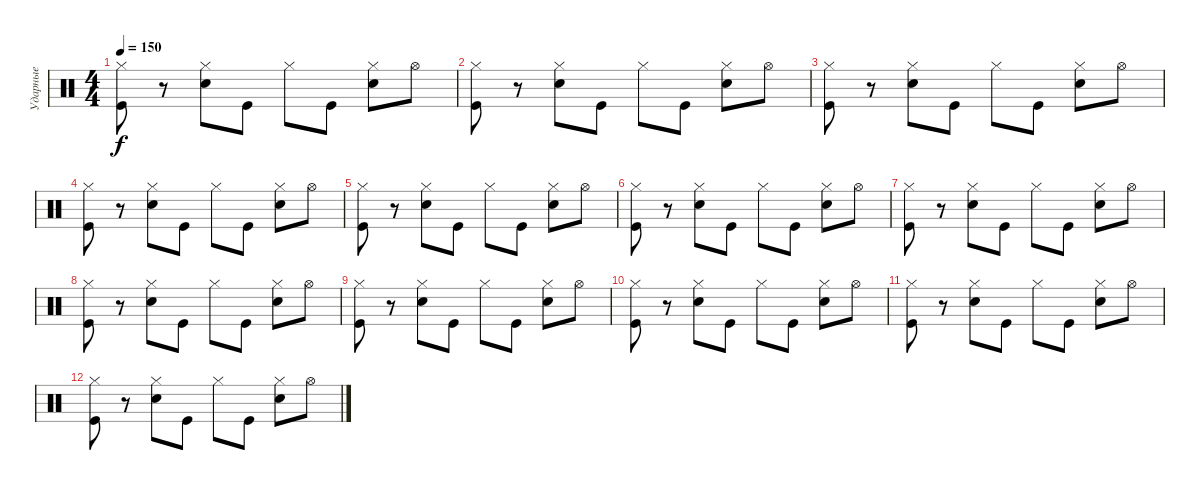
\track ("Ударные" "Ударные") {instrument percussion}
\staff {score}
\articulation defaults
\ts (4 4)
\tempo 150
\clef neutral
\ks c
("Kick (hit)" "Hi-Hat (closed)").8{dy f} r.8 ("Hand Clap (hit)" "Hi-Hat (closed)").8 "Kick (hit)".8 "Hi-Hat (closed)".8 "Kick (hit)".8 ("Hand Clap (hit)" "Hi-Hat (closed)").8 "Hi-Hat (open)".8 |
("Kick (hit)" "Hi-Hat (closed)").8 r.8 ("Hand Clap (hit)" "Hi-Hat (closed)").8 "Kick (hit)".8 "Hi-Hat (closed)".8 "Kick (hit)".8 ("Hand Clap (hit)" "Hi-Hat (closed)").8 "Hi-Hat (open)".8 |
("Kick (hit)" "Hi-Hat (closed)").8 r.8 ("Hand Clap (hit)" "Hi-Hat (closed)").8 "Kick (hit)".8 "Hi-Hat (closed)".8 "Kick (hit)".8 ("Hand Clap (hit)" "Hi-Hat (closed)").8 "Hi-Hat (open)".8 |
("Kick (hit)" "Hi-Hat (closed)").8 r.8 ("Hand Clap (hit)" "Hi-Hat (closed)").8 "Kick (hit)".8 "Hi-Hat (closed)".8 "Kick (hit)".8 ("Hand Clap (hit)" "Hi-Hat (closed)").8 "Hi-Hat (open)".8 |
("Kick (hit)" "Hi-Hat (closed)").8 r.8 ("Hand Clap (hit)" "Hi-Hat (closed)").8 "Kick (hit)".8 "Hi-Hat (closed)".8 "Kick (hit)".8 ("Hand Clap (hit)" "Hi-Hat (closed)").8 "Hi-Hat (open)".8 |
("Kick (hit)" "Hi-Hat (closed)").8 r.8 ("Hand Clap (hit)" "Hi-Hat (closed)").8 "Kick (hit)".8 "Hi-Hat (closed)".8 "Kick (hit)".8 ("Hand Clap (hit)" "Hi-Hat (closed)").8 "Hi-Hat (open)".8 |
("Kick (hit)" "Hi-Hat (closed)").8 r.8 ("Hand Clap (hit)" "Hi-Hat (closed)").8 "Kick (hit)".8 "Hi-Hat (closed)".8 "Kick (hit)".8 ("Hand Clap (hit)" "Hi-Hat (closed)").8 "Hi-Hat (open)".8 |
("Kick (hit)" "Hi-Hat (closed)").8 r.8 ("Hand Clap (hit)" "Hi-Hat (closed)").8 "Kick (hit)".8 "Hi-Hat (closed)".8 "Kick (hit)".8 ("Hand Clap (hit)" "Hi-Hat (closed)").8 "Hi-Hat (open)".8 |
("Kick (hit)" "Hi-Hat (closed)").8 r.8 ("Hand Clap (hit)" "Hi-Hat (closed)").8 "Kick (hit)".8 "Hi-Hat (closed)".8 "Kick (hit)".8 ("Hand Clap (hit)" "Hi-Hat (closed)").8 "Hi-Hat (open)".8 |
("Kick (hit)" "Hi-Hat (closed)").8 r.8 ("Hand Clap (hit)" "Hi-Hat (closed)").8 "Kick (hit)".8 "Hi-Hat (closed)".8 "Kick (hit)".8 ("Hand Clap (hit)" "Hi-Hat (closed)").8 "Hi-Hat (open)".8 |
("Kick (hit)" "Hi-Hat (closed)").8 r.8 ("Hand Clap (hit)" "Hi-Hat (closed)").8 "Kick (hit)".8 "Hi-Hat (closed)".8 "Kick (hit)".8 ("Hand Clap (hit)" "Hi-Hat (closed)").8 "Hi-Hat (open)".8 |
("Kick (hit)" "Hi-Hat (closed)").8 r.8 ("Hand Clap (hit)" "Hi-Hat (closed)").8 "Kick (hit)".8 "Hi-Hat (closed)".8 "Kick (hit)".8 ("Hand Clap (hit)" "Hi-Hat (closed)").8 "Hi-Hat (open)".8
